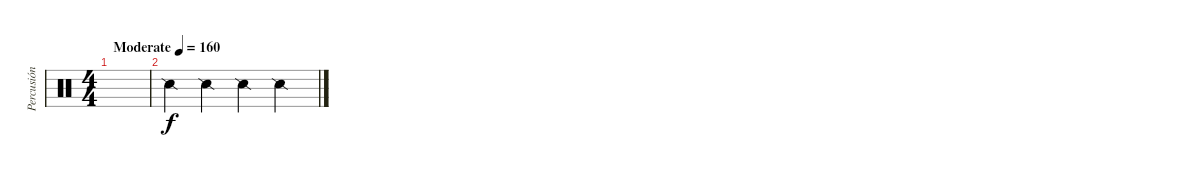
\track ("Percusión" "Percusión") {instrument percussion}
\staff {score}
\articulation defaults
\ts (4 4)
\tempo (160 "Moderate")
\clef neutral
\ks c
|
"Snare (side stick) 2".4 "Snare (side stick) 2".4 "Snare (side stick) 2".4 "Snare (side stick) 2".4
